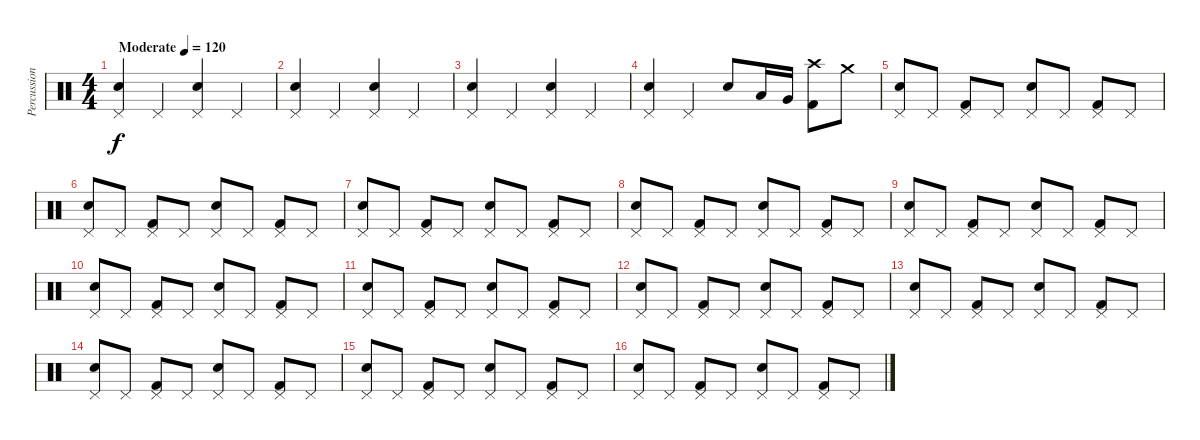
\track ("Percussion" "Percussion") {instrument percussion}
\staff {score}
\articulation defaults
\ts (4 4)
\tempo (120 "Moderate")
\clef neutral
\ks c
("Pedal Hi-Hat (hit)" "Snare (hit) 2").4{dy f} "Pedal Hi-Hat (hit)".4 ("Pedal Hi-Hat (hit)" "Snare (hit) 2").4 "Pedal Hi-Hat (hit)".4 |
("Pedal Hi-Hat (hit)" "Snare (hit) 2").4 "Pedal Hi-Hat (hit)".4 ("Pedal Hi-Hat (hit)" "Snare (hit) 2").4 "Pedal Hi-Hat (hit)".4 |
("Pedal Hi-Hat (hit)" "Snare (hit) 2").4 "Pedal Hi-Hat (hit)".4 ("Pedal Hi-Hat (hit)" "Snare (hit) 2").4 "Pedal Hi-Hat (hit)".4 |
("Pedal Hi-Hat (hit)" "Snare (hit) 2").4 "Pedal Hi-Hat (hit)".4 "Snare (hit) 2".8 "Low Tom (hit)".16 "Very Low Tom (hit)".16 ("Crash high (hit)" "Kick (hit) 2").8 "Crash medium (hit)".8 |
("Pedal Hi-Hat (hit)" "Snare (hit) 2").8 "Pedal Hi-Hat (hit)".8 ("Pedal Hi-Hat (hit)" "Kick (hit) 2").8 "Pedal Hi-Hat (hit)".8 ("Pedal Hi-Hat (hit)" "Snare (hit) 2").8 "Pedal Hi-Hat (hit)".8 ("Pedal Hi-Hat (hit)" "Kick (hit) 2").8 "Pedal Hi-Hat (hit)".8 |
("Pedal Hi-Hat (hit)" "Snare (hit) 2").8 "Pedal Hi-Hat (hit)".8 ("Pedal Hi-Hat (hit)" "Kick (hit) 2").8 "Pedal Hi-Hat (hit)".8 ("Pedal Hi-Hat (hit)" "Snare (hit) 2").8 "Pedal Hi-Hat (hit)".8 ("Pedal Hi-Hat (hit)" "Kick (hit) 2").8 "Pedal Hi-Hat (hit)".8 |
("Pedal Hi-Hat (hit)" "Snare (hit) 2").8 "Pedal Hi-Hat (hit)".8 ("Pedal Hi-Hat (hit)" "Kick (hit) 2").8 "Pedal Hi-Hat (hit)".8 ("Pedal Hi-Hat (hit)" "Snare (hit) 2").8 "Pedal Hi-Hat (hit)".8 ("Pedal Hi-Hat (hit)" "Kick (hit) 2").8 "Pedal Hi-Hat (hit)".8 |
("Pedal Hi-Hat (hit)" "Snare (hit) 2").8 "Pedal Hi-Hat (hit)".8 ("Pedal Hi-Hat (hit)" "Kick (hit) 2").8 "Pedal Hi-Hat (hit)".8 ("Pedal Hi-Hat (hit)" "Snare (hit) 2").8 "Pedal Hi-Hat (hit)".8 ("Pedal Hi-Hat (hit)" "Kick (hit) 2").8 "Pedal Hi-Hat (hit)".8 |
("Pedal Hi-Hat (hit)" "Snare (hit) 2").8 "Pedal Hi-Hat (hit)".8 ("Pedal Hi-Hat (hit)" "Kick (hit) 2").8 "Pedal Hi-Hat (hit)".8 ("Pedal Hi-Hat (hit)" "Snare (hit) 2").8 "Pedal Hi-Hat (hit)".8 ("Pedal Hi-Hat (hit)" "Kick (hit) 2").8 "Pedal Hi-Hat (hit)".8 |
("Pedal Hi-Hat (hit)" "Snare (hit) 2").8 "Pedal Hi-Hat (hit)".8 ("Pedal Hi-Hat (hit)" "Kick (hit) 2").8 "Pedal Hi-Hat (hit)".8 ("Pedal Hi-Hat (hit)" "Snare (hit) 2").8 "Pedal Hi-Hat (hit)".8 ("Pedal Hi-Hat (hit)" "Kick (hit) 2").8 "Pedal Hi-Hat (hit)".8 |
("Pedal Hi-Hat (hit)" "Snare (hit) 2").8 "Pedal Hi-Hat (hit)".8 ("Pedal Hi-Hat (hit)" "Kick (hit) 2").8 "Pedal Hi-Hat (hit)".8 ("Pedal Hi-Hat (hit)" "Snare (hit) 2").8 "Pedal Hi-Hat (hit)".8 ("Pedal Hi-Hat (hit)" "Kick (hit) 2").8 "Pedal Hi-Hat (hit)".8 |
("Pedal Hi-Hat (hit)" "Snare (hit) 2").8 "Pedal Hi-Hat (hit)".8 ("Pedal Hi-Hat (hit)" "Kick (hit) 2").8 "Pedal Hi-Hat (hit)".8 ("Pedal Hi-Hat (hit)" "Snare (hit) 2").8 "Pedal Hi-Hat (hit)".8 ("Pedal Hi-Hat (hit)" "Kick (hit) 2").8 "Pedal Hi-Hat (hit)".8 |
("Pedal Hi-Hat (hit)" "Snare (hit) 2").8 "Pedal Hi-Hat (hit)".8 ("Pedal Hi-Hat (hit)" "Kick (hit) 2").8 "Pedal Hi-Hat (hit)".8 ("Pedal Hi-Hat (hit)" "Snare (hit) 2").8 "Pedal Hi-Hat (hit)".8 ("Pedal Hi-Hat (hit)" "Kick (hit) 2").8 "Pedal Hi-Hat (hit)".8 |
("Pedal Hi-Hat (hit)" "Snare (hit) 2").8 "Pedal Hi-Hat (hit)".8 ("Pedal Hi-Hat (hit)" "Kick (hit) 2").8 "Pedal Hi-Hat (hit)".8 ("Pedal Hi-Hat (hit)" "Snare (hit) 2").8 "Pedal Hi-Hat (hit)".8 ("Pedal Hi-Hat (hit)" "Kick (hit) 2").8 "Pedal Hi-Hat (hit)".8 |
("Pedal Hi-Hat (hit)" "Snare (hit) 2").8 "Pedal Hi-Hat (hit)".8 ("Pedal Hi-Hat (hit)" "Kick (hit) 2").8 "Pedal Hi-Hat (hit)".8 ("Pedal Hi-Hat (hit)" "Snare (hit) 2").8 "Pedal Hi-Hat (hit)".8 ("Pedal Hi-Hat (hit)" "Kick (hit) 2").8 "Pedal Hi-Hat (hit)".8 |
("Pedal Hi-Hat (hit)" "Snare (hit) 2").8 "Pedal Hi-Hat (hit)".8 ("Pedal Hi-Hat (hit)" "Kick (hit) 2").8 "Pedal Hi-Hat (hit)".8 ("Pedal Hi-Hat (hit)" "Snare (hit) 2").8 "Pedal Hi-Hat (hit)".8 ("Pedal Hi-Hat (hit)" "Kick (hit) 2").8 "Pedal Hi-Hat (hit)".8
